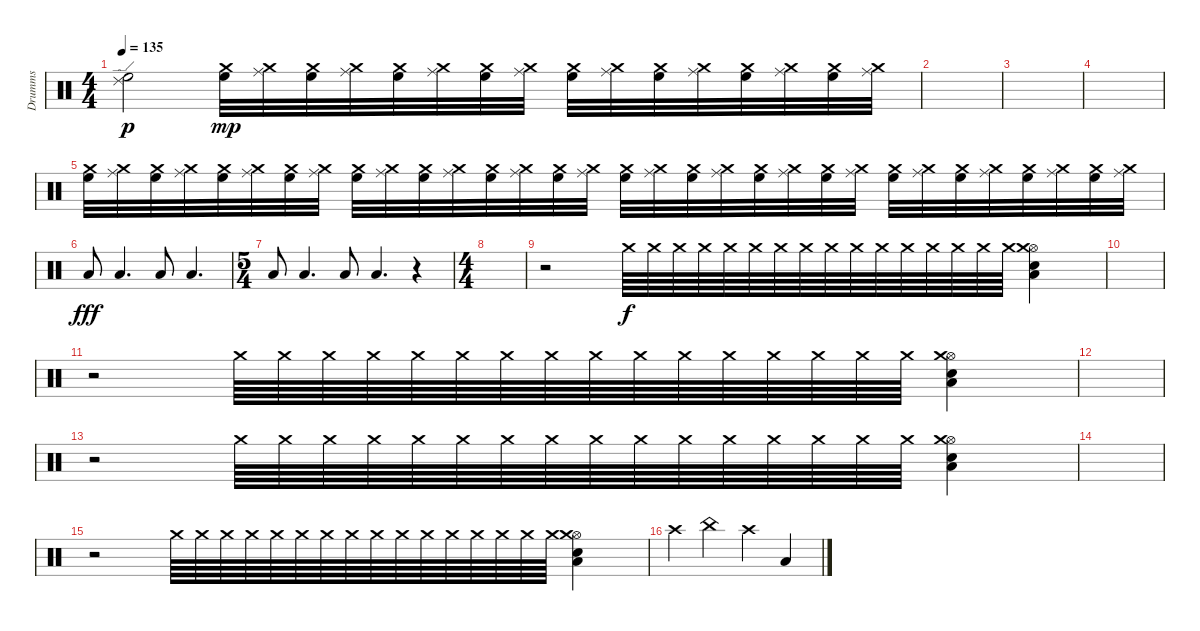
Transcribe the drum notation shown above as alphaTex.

\track ("Drumms" "Drumms") {instrument percussion}
\staff {score}
\articulation defaults
\ts (4 4)
\tempo 135
\clef neutral
\ks c
("Ride (edge) 2" "High Floor Tom (hit)").2{dy p} ("Crash medium (hit)" "High Floor Tom (hit)").32{dy mp} ("Crash medium (hit)" "Ride (middle)").32 ("Crash medium (hit)" "High Floor Tom (hit)").32 ("Crash medium (hit)" "Ride (middle)").32 ("Crash medium (hit)" "High Floor Tom (hit)").32 ("Crash medium (hit)" "Ride (middle)").32 ("Crash medium (hit)" "High Floor Tom (hit)").32 ("Crash medium (hit)" "Ride (middle)").32 ("Crash medium (hit)" "High Floor Tom (hit)").32 ("Crash medium (hit)" "Ride (middle)").32 ("Crash medium (hit)" "High Floor Tom (hit)").32 ("Crash medium (hit)" "Ride (middle)").32 ("Crash medium (hit)" "High Floor Tom (hit)").32 ("Crash medium (hit)" "Ride (middle)").32 ("Crash medium (hit)" "High Floor Tom (hit)").32 ("Crash medium (hit)" "Ride (middle)").32 |
\section ("" "")
|
|
|
("Crash medium (hit)" "High Floor Tom (hit)").32 ("Crash medium (hit)" "Ride (middle)").32 ("Crash medium (hit)" "High Floor Tom (hit)").32 ("Crash medium (hit)" "Ride (middle)").32 ("Crash medium (hit)" "High Floor Tom (hit)").32 ("Crash medium (hit)" "Ride (middle)").32 ("Crash medium (hit)" "High Floor Tom (hit)").32 ("Crash medium (hit)" "Ride (middle)").32 ("Crash medium (hit)" "High Floor Tom (hit)").32 ("Crash medium (hit)" "Ride (middle)").32 ("Crash medium (hit)" "High Floor Tom (hit)").32 ("Crash medium (hit)" "Ride (middle)").32 ("Crash medium (hit)" "High Floor Tom (hit)").32 ("Crash medium (hit)" "Ride (middle)").32 ("Crash medium (hit)" "High Floor Tom (hit)").32 ("Crash medium (hit)" "Ride (middle)").32 ("Crash medium (hit)" "High Floor Tom (hit)").32 ("Crash medium (hit)" "Ride (middle)").32 ("Crash medium (hit)" "High Floor Tom (hit)").32 ("Crash medium (hit)" "Ride (middle)").32 ("Crash medium (hit)" "High Floor Tom (hit)").32 ("Crash medium (hit)" "Ride (middle)").32 ("Crash medium (hit)" "High Floor Tom (hit)").32 ("Crash medium (hit)" "Ride (middle)").32 ("Crash medium (hit)" "High Floor Tom (hit)").32 ("Crash medium (hit)" "Ride (middle)").32 ("Crash medium (hit)" "High Floor Tom (hit)").32 ("Crash medium (hit)" "Ride (middle)").32 ("Crash medium (hit)" "High Floor Tom (hit)").32 ("Crash medium (hit)" "Ride (middle)").32 ("Crash medium (hit)" "High Floor Tom (hit)").32 ("Crash medium (hit)" "Ride (middle)").32 |
"Low Tom (hit)".8{dy fff} "Low Tom (hit)".4{d} "Low Tom (hit)".8 "Low Tom (hit)".4{d} |
\ts (5 4)
"Low Tom (hit)".8 "Low Tom (hit)".4{d} "Low Tom (hit)".8 "Low Tom (hit)".4{d} r.4 |
\ts (4 4)
\section ("" "")
|
r.2 "Crash medium (hit)".64{dy f} "Crash medium (hit)".64 "Crash medium (hit)".64 "Crash medium (hit)".64 "Crash medium (hit)".64 "Crash medium (hit)".64 "Crash medium (hit)".64 "Crash medium (hit)".64 "Crash medium (hit)".64 "Crash medium (hit)".64 "Crash medium (hit)".64 "Crash medium (hit)".64 "Crash medium (hit)".64 "Crash medium (hit)".64 "Crash medium (hit)".64 "Crash medium (hit)".64 ("Hi-Hat (open)" "Low Floor Tom (hit)" "Electric Snare (hit)" "Crash medium (hit)").4 |
|
r.2 "Crash medium (hit)".64 "Crash medium (hit)".64 "Crash medium (hit)".64 "Crash medium (hit)".64 "Crash medium (hit)".64 "Crash medium (hit)".64 "Crash medium (hit)".64 "Crash medium (hit)".64 "Crash medium (hit)".64 "Crash medium (hit)".64 "Crash medium (hit)".64 "Crash medium (hit)".64 "Crash medium (hit)".64 "Crash medium (hit)".64 "Crash medium (hit)".64 "Crash medium (hit)".64 ("Hi-Hat (open)" "Low Floor Tom (hit)" "Electric Snare (hit)" "Crash medium (hit)").4 |
|
r.2 "Crash medium (hit)".64 "Crash medium (hit)".64 "Crash medium (hit)".64 "Crash medium (hit)".64 "Crash medium (hit)".64 "Crash medium (hit)".64 "Crash medium (hit)".64 "Crash medium (hit)".64 "Crash medium (hit)".64 "Crash medium (hit)".64 "Crash medium (hit)".64 "Crash medium (hit)".64 "Crash medium (hit)".64 "Crash medium (hit)".64 "Crash medium (hit)".64 "Crash medium (hit)".64 ("Hi-Hat (open)" "Low Floor Tom (hit)" "Electric Snare (hit)" "Crash medium (hit)").4 |
|
r.2 "Crash medium (hit)".64 "Crash medium (hit)".64 "Crash medium (hit)".64 "Crash medium (hit)".64 "Crash medium (hit)".64 "Crash medium (hit)".64 "Crash medium (hit)".64 "Crash medium (hit)".64 "Crash medium (hit)".64 "Crash medium (hit)".64 "Crash medium (hit)".64 "Crash medium (hit)".64 "Crash medium (hit)".64 "Crash medium (hit)".64 "Crash medium (hit)".64 "Crash medium (hit)".64 ("Hi-Hat (open)" "Low Floor Tom (hit)" "Electric Snare (hit)" "Crash medium (hit)").4 |
"Crash high (hit)".4 "China (hit)".4 "Crash high (hit)".4 "Low Floor Tom (hit)".4
